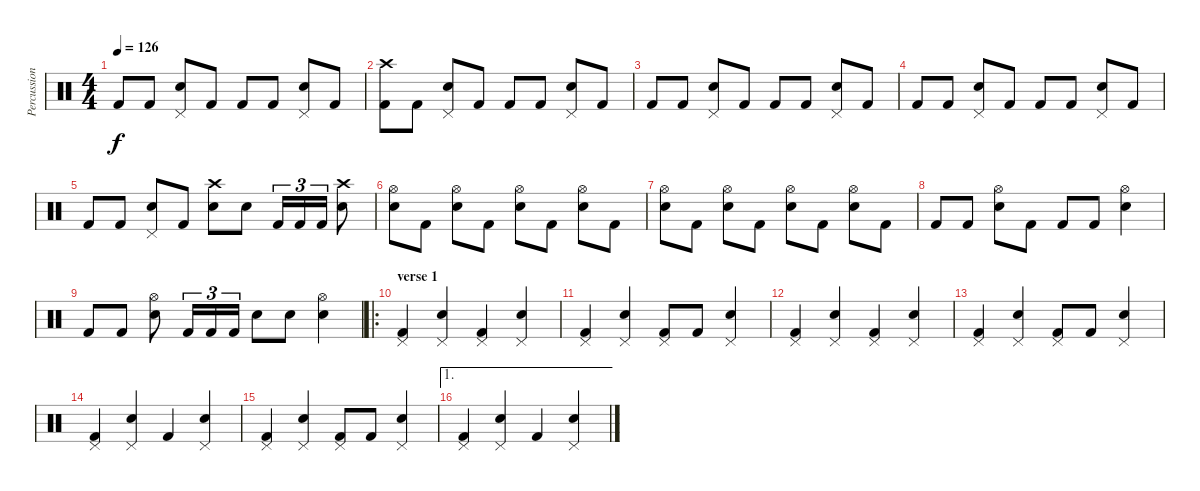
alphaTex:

\track ("Percussion" "Percussion") {instrument percussion}
\staff {score}
\articulation defaults
\ts (4 4)
\tempo 126
\clef neutral
\ks c "Kick (hit) 2".8{dy f} "Kick (hit) 2".8
("Pedal Hi-Hat (hit)" "Electric Snare (hit)").8 "Kick (hit) 2".8 "Kick (hit) 2".8 "Kick (hit) 2".8 ("Pedal Hi-Hat (hit)" "Electric Snare (hit)").8 "Kick (hit) 2".8 |
("Crash high (hit)" "Kick (hit) 2").8 "Kick (hit) 2".8 ("Pedal Hi-Hat (hit)" "Electric Snare (hit)").8 "Kick (hit) 2".8 "Kick (hit) 2".8 "Kick (hit) 2".8 ("Pedal Hi-Hat (hit)" "Electric Snare (hit)").8 "Kick (hit) 2".8 |
"Kick (hit) 2".8 "Kick (hit) 2".8 ("Pedal Hi-Hat (hit)" "Electric Snare (hit)").8 "Kick (hit) 2".8 "Kick (hit) 2".8 "Kick (hit) 2".8 ("Pedal Hi-Hat (hit)" "Electric Snare (hit)").8 "Kick (hit) 2".8 |
"Kick (hit) 2".8 "Kick (hit) 2".8 ("Pedal Hi-Hat (hit)" "Electric Snare (hit)").8 "Kick (hit) 2".8 "Kick (hit) 2".8 "Kick (hit) 2".8 ("Pedal Hi-Hat (hit)" "Electric Snare (hit)").8 "Kick (hit) 2".8 |
"Kick (hit) 2".8 "Kick (hit) 2".8 ("Pedal Hi-Hat (hit)" "Electric Snare (hit)").8 "Kick (hit) 2".8 ("Crash high (hit)" "Electric Snare (hit)").8 "Electric Snare (hit)".8 "Kick (hit) 2".16{tu (3 2)} "Kick (hit) 2".16{tu (3 2)} "Kick (hit) 2".16{tu (3 2)} ("Crash high (hit)" "Electric Snare (hit)").8 |
("Hi-Hat (open)" "Electric Snare (hit)").8 "Kick (hit) 2".8 ("Hi-Hat (open)" "Electric Snare (hit)").8 "Kick (hit) 2".8 ("Hi-Hat (open)" "Electric Snare (hit)").8 "Kick (hit) 2".8 ("Hi-Hat (open)" "Electric Snare (hit)").8 "Kick (hit) 2".8 |
("Hi-Hat (open)" "Electric Snare (hit)").8 "Kick (hit) 2".8 ("Hi-Hat (open)" "Electric Snare (hit)").8 "Kick (hit) 2".8 ("Hi-Hat (open)" "Electric Snare (hit)").8 "Kick (hit) 2".8 ("Hi-Hat (open)" "Electric Snare (hit)").8 "Kick (hit) 2".8 |
"Kick (hit) 2".8 "Kick (hit) 2".8 ("Hi-Hat (open)" "Electric Snare (hit)").8 "Kick (hit) 2".8 "Kick (hit) 2".8 "Kick (hit) 2".8 ("Hi-Hat (open)" "Electric Snare (hit)").4 |
"Kick (hit) 2".8 "Kick (hit) 2".8 ("Hi-Hat (open)" "Electric Snare (hit)").8 "Kick (hit) 2".16{tu (3 2)} "Kick (hit) 2".16{tu (3 2)} "Kick (hit) 2".16{tu (3 2)} "Electric Snare (hit)".8 "Electric Snare (hit)".8 ("Hi-Hat (open)" "Electric Snare (hit)").4 |
\ro
\section ("" "verse 1")
("Pedal Hi-Hat (hit)" "Kick (hit) 2").4 ("Pedal Hi-Hat (hit)" "Electric Snare (hit)").4 ("Pedal Hi-Hat (hit)" "Kick (hit) 2").4 ("Pedal Hi-Hat (hit)" "Electric Snare (hit)").4 |
("Pedal Hi-Hat (hit)" "Kick (hit) 2").4 ("Pedal Hi-Hat (hit)" "Electric Snare (hit)").4 ("Pedal Hi-Hat (hit)" "Kick (hit) 2").8 "Kick (hit) 2".8 ("Pedal Hi-Hat (hit)" "Electric Snare (hit)").4 |
("Pedal Hi-Hat (hit)" "Kick (hit) 2").4 ("Pedal Hi-Hat (hit)" "Electric Snare (hit)").4 ("Pedal Hi-Hat (hit)" "Kick (hit) 2").4 ("Pedal Hi-Hat (hit)" "Electric Snare (hit)").4 |
("Pedal Hi-Hat (hit)" "Kick (hit) 2").4 ("Pedal Hi-Hat (hit)" "Electric Snare (hit)").4 ("Pedal Hi-Hat (hit)" "Kick (hit) 2").8 "Kick (hit) 2".8 ("Pedal Hi-Hat (hit)" "Electric Snare (hit)").4 |
("Pedal Hi-Hat (hit)" "Kick (hit) 2").4 ("Pedal Hi-Hat (hit)" "Electric Snare (hit)").4 "Kick (hit) 2".4 ("Pedal Hi-Hat (hit)" "Electric Snare (hit)").4 |
("Pedal Hi-Hat (hit)" "Kick (hit) 2").4 ("Pedal Hi-Hat (hit)" "Electric Snare (hit)").4 ("Pedal Hi-Hat (hit)" "Kick (hit) 2").8 "Kick (hit) 2".8 ("Pedal Hi-Hat (hit)" "Electric Snare (hit)").4 |
\ae 1
("Pedal Hi-Hat (hit)" "Kick (hit) 2").4 ("Pedal Hi-Hat (hit)" "Electric Snare (hit)").4 "Kick (hit) 2".4 ("Pedal Hi-Hat (hit)" "Electric Snare (hit)").4
